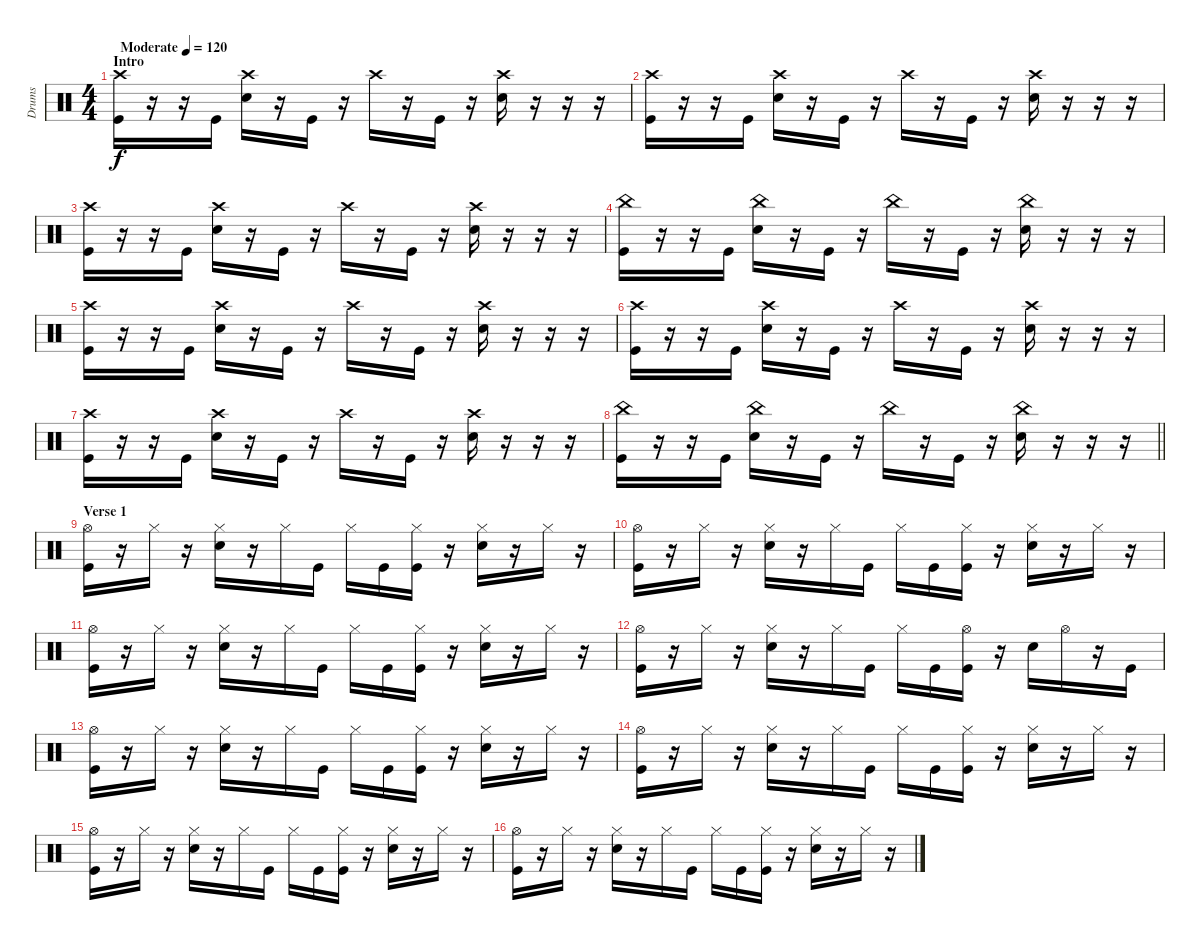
\track ("Drums" "Drums") {instrument percussion}
\staff {score}
\articulation defaults
\ts (4 4)
\section ("" "Intro")
\tempo (120 "Moderate")
\clef neutral
\ks c
("Crash high (hit)" "Kick (hit)").16{dy f} r.16 r.16 "Kick (hit)".16 ("Snare (hit) 2" "Crash high (hit)").16 r.16 "Kick (hit)".16 r.16 "Crash high (hit)".16 r.16 "Kick (hit)".16 r.16 ("Snare (hit) 2" "Crash high (hit)").16 r.16 r.16 r.16 |
("Crash high (hit)" "Kick (hit)").16 r.16 r.16 "Kick (hit)".16 ("Snare (hit) 2" "Crash high (hit)").16 r.16 "Kick (hit)".16 r.16 "Crash high (hit)".16 r.16 "Kick (hit)".16 r.16 ("Snare (hit) 2" "Crash high (hit)").16 r.16 r.16 r.16 |
("Crash high (hit)" "Kick (hit)").16 r.16 r.16 "Kick (hit)".16 ("Snare (hit) 2" "Crash high (hit)").16 r.16 "Kick (hit)".16 r.16 "Crash high (hit)".16 r.16 "Kick (hit)".16 r.16 ("Snare (hit) 2" "Crash high (hit)").16 r.16 r.16 r.16 |
("China (hit)" "Kick (hit)").16 r.16 r.16 "Kick (hit)".16 ("Snare (hit) 2" "China (hit)").16 r.16 "Kick (hit)".16 r.16 "China (hit)".16 r.16 "Kick (hit)".16 r.16 ("Snare (hit) 2" "China (hit)").16 r.16 r.16 r.16 |
("Crash high (hit)" "Kick (hit)").16 r.16 r.16 "Kick (hit)".16 ("Snare (hit) 2" "Crash high (hit)").16 r.16 "Kick (hit)".16 r.16 "Crash high (hit)".16 r.16 "Kick (hit)".16 r.16 ("Snare (hit) 2" "Crash high (hit)").16 r.16 r.16 r.16 |
("Crash high (hit)" "Kick (hit)").16 r.16 r.16 "Kick (hit)".16 ("Snare (hit) 2" "Crash high (hit)").16 r.16 "Kick (hit)".16 r.16 "Crash high (hit)".16 r.16 "Kick (hit)".16 r.16 ("Snare (hit) 2" "Crash high (hit)").16 r.16 r.16 r.16 |
("Crash high (hit)" "Kick (hit)").16 r.16 r.16 "Kick (hit)".16 ("Snare (hit) 2" "Crash high (hit)").16 r.16 "Kick (hit)".16 r.16 "Crash high (hit)".16 r.16 "Kick (hit)".16 r.16 ("Snare (hit) 2" "Crash high (hit)").16 r.16 r.16 r.16 |
\barLineRight lightlight
("China (hit)" "Kick (hit)").16 r.16 r.16 "Kick (hit)".16 ("Snare (hit) 2" "China (hit)").16 r.16 "Kick (hit)".16 r.16 "China (hit)".16 r.16 "Kick (hit)".16 r.16 ("Snare (hit) 2" "China (hit)").16 r.16 r.16 r.16 |
\section ("" "Verse 1")
("Hi-Hat (open)" "Kick (hit)").16 r.16 "Hi-Hat (closed)".16 r.16 ("Hi-Hat (closed)" "Snare (hit) 2").16 r.16 "Hi-Hat (closed)".16 "Kick (hit)".16 "Hi-Hat (closed)".16 "Kick (hit)".16 ("Hi-Hat (closed)" "Kick (hit)").16 r.16 ("Hi-Hat (closed)" "Snare (hit) 2").16 r.16 "Hi-Hat (closed)".16 r.16 |
("Hi-Hat (open)" "Kick (hit)").16 r.16 "Hi-Hat (closed)".16 r.16 ("Hi-Hat (closed)" "Snare (hit) 2").16 r.16 "Hi-Hat (closed)".16 "Kick (hit)".16 "Hi-Hat (closed)".16 "Kick (hit)".16 ("Hi-Hat (closed)" "Kick (hit)").16 r.16 ("Hi-Hat (closed)" "Snare (hit) 2").16 r.16 "Hi-Hat (closed)".16 r.16 |
("Hi-Hat (open)" "Kick (hit)").16 r.16 "Hi-Hat (closed)".16 r.16 ("Hi-Hat (closed)" "Snare (hit) 2").16 r.16 "Hi-Hat (closed)".16 "Kick (hit)".16 "Hi-Hat (closed)".16 "Kick (hit)".16 ("Hi-Hat (closed)" "Kick (hit)").16 r.16 ("Hi-Hat (closed)" "Snare (hit) 2").16 r.16 "Hi-Hat (closed)".16 r.16 |
("Hi-Hat (open)" "Kick (hit)").16 r.16 "Hi-Hat (closed)".16 r.16 ("Hi-Hat (closed)" "Snare (hit) 2").16 r.16 "Hi-Hat (closed)".16 "Kick (hit)".16 "Hi-Hat (closed)".16 "Kick (hit)".16 ("Hi-Hat (open)" "Kick (hit)").16 r.16 "Snare (hit) 2".16 "Hi-Hat (open)".16 r.16 "Kick (hit)".16 |
("Hi-Hat (open)" "Kick (hit)").16 r.16 "Hi-Hat (closed)".16 r.16 ("Hi-Hat (closed)" "Snare (hit) 2").16 r.16 "Hi-Hat (closed)".16 "Kick (hit)".16 "Hi-Hat (closed)".16 "Kick (hit)".16 ("Hi-Hat (closed)" "Kick (hit)").16 r.16 ("Hi-Hat (closed)" "Snare (hit) 2").16 r.16 "Hi-Hat (closed)".16 r.16 |
("Hi-Hat (open)" "Kick (hit)").16 r.16 "Hi-Hat (closed)".16 r.16 ("Hi-Hat (closed)" "Snare (hit) 2").16 r.16 "Hi-Hat (closed)".16 "Kick (hit)".16 "Hi-Hat (closed)".16 "Kick (hit)".16 ("Hi-Hat (closed)" "Kick (hit)").16 r.16 ("Hi-Hat (closed)" "Snare (hit) 2").16 r.16 "Hi-Hat (closed)".16 r.16 |
("Hi-Hat (open)" "Kick (hit)").16 r.16 "Hi-Hat (closed)".16 r.16 ("Hi-Hat (closed)" "Snare (hit) 2").16 r.16 "Hi-Hat (closed)".16 "Kick (hit)".16 "Hi-Hat (closed)".16 "Kick (hit)".16 ("Hi-Hat (closed)" "Kick (hit)").16 r.16 ("Hi-Hat (closed)" "Snare (hit) 2").16 r.16 "Hi-Hat (closed)".16 r.16 |
("Hi-Hat (open)" "Kick (hit)").16 r.16 "Hi-Hat (closed)".16 r.16 ("Hi-Hat (closed)" "Snare (hit) 2").16 r.16 "Hi-Hat (closed)".16 "Kick (hit)".16 "Hi-Hat (closed)".16 "Kick (hit)".16 ("Hi-Hat (closed)" "Kick (hit)").16 r.16 ("Hi-Hat (closed)" "Snare (hit) 2").16 r.16 "Hi-Hat (closed)".16 r.16
